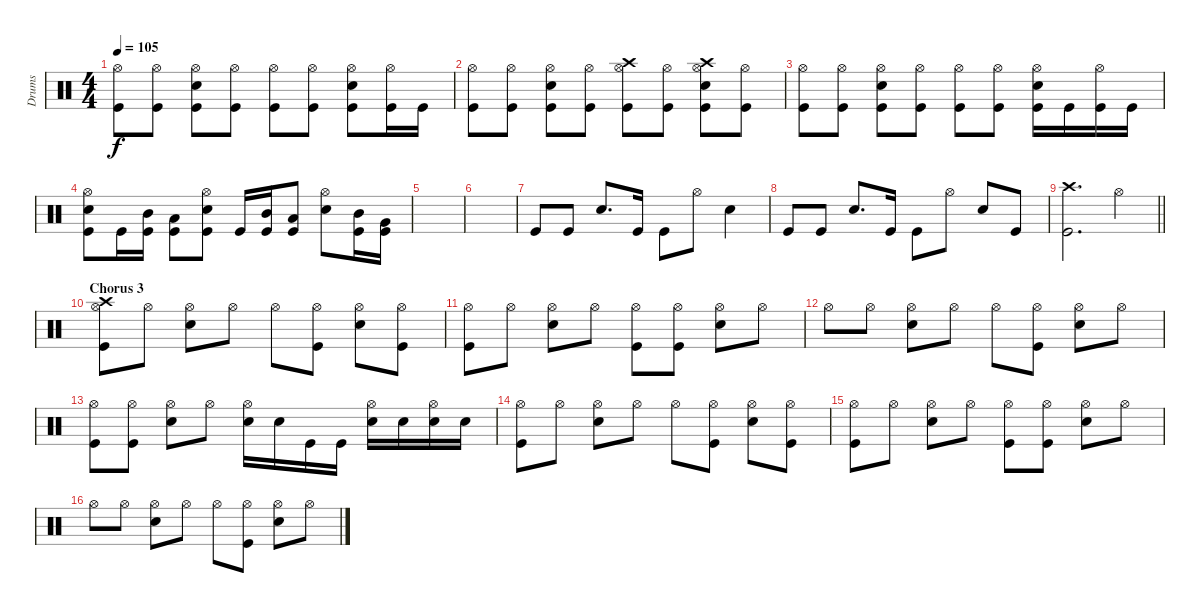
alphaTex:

\track ("Drums" "Drums") {instrument percussion}
\staff {score}
\articulation defaults
\ts (4 4)
\tempo 105
\clef neutral
\ks c
("Hi-Hat (open)" "Kick (hit)").8{dy f} ("Hi-Hat (open)" "Kick (hit)").8 ("Snare (hit) 2" "Hi-Hat (open)" "Kick (hit)").8 ("Hi-Hat (open)" "Kick (hit)").8 ("Hi-Hat (open)" "Kick (hit)").8 ("Hi-Hat (open)" "Kick (hit)").8 ("Snare (hit) 2" "Hi-Hat (open)" "Kick (hit)").8 ("Hi-Hat (open)" "Kick (hit)").16 "Kick (hit)".16 |
("Hi-Hat (open)" "Kick (hit)").8 ("Hi-Hat (open)" "Kick (hit)").8 ("Snare (hit) 2" "Hi-Hat (open)" "Kick (hit)").8 ("Hi-Hat (open)" "Kick (hit)").8 ("Crash high (hit)" "Hi-Hat (open)" "Kick (hit)").8 ("Hi-Hat (open)" "Kick (hit)").8 ("Crash high (hit)" "Snare (hit) 2" "Hi-Hat (open)" "Kick (hit)").8 ("Hi-Hat (open)" "Kick (hit)").8 |
("Hi-Hat (open)" "Kick (hit)").8 ("Hi-Hat (open)" "Kick (hit)").8 ("Snare (hit) 2" "Hi-Hat (open)" "Kick (hit)").8 ("Hi-Hat (open)" "Kick (hit)").8 ("Hi-Hat (open)" "Kick (hit)").8 ("Hi-Hat (open)" "Kick (hit)").8 ("Snare (hit) 2" "Hi-Hat (open)" "Kick (hit)").16 "Kick (hit)".16 ("Kick (hit)" "Hi-Hat (open)").16 "Kick (hit)".16 |
("Hi-Hat (open)" "Snare (hit) 2" "Kick (hit)").8 "Kick (hit)".16 ("Mid Tom (hit)" "Kick (hit)").16 ("Kick (hit)" "Low Tom (hit)").8 ("Hi-Hat (open)" "Snare (hit) 2" "Kick (hit)").8 "Kick (hit)".16 ("Mid Tom (hit)" "Kick (hit)").16 ("Kick (hit)" "Low Tom (hit)").8 ("Snare (hit) 2" "Hi-Hat (open)").8 ("Kick (hit)" "Mid Tom (hit)").16 ("Very Low Tom (hit)" "Kick (hit)").16 |
|
|
"Kick (hit)".8 "Kick (hit)".8 "Snare (hit) 2".8{d} "Kick (hit)".16 "Kick (hit)".8 "Hi-Hat (open)".8 "Snare (hit) 2".4 |
"Kick (hit)".8 "Kick (hit)".8 "Snare (hit) 2".8{d} "Kick (hit)".16 "Kick (hit)".8 "Hi-Hat (open)".8 "Snare (hit) 2".8 "Kick (hit)".8 |
\barLineRight lightlight
("Kick (hit)" "Crash high (hit)").2{d} "Hi-Hat (open)".4 |
\section ("" "Chorus 3")
("Kick (hit)" "Hi-Hat (open)" "Crash high (hit)").8 "Hi-Hat (open)".8 ("Snare (hit) 2" "Hi-Hat (open)").8 "Hi-Hat (open)".8 "Hi-Hat (open)".8 ("Kick (hit)" "Hi-Hat (open)").8 ("Snare (hit) 2" "Hi-Hat (open)").8 ("Kick (hit)" "Hi-Hat (open)").8 |
("Kick (hit)" "Hi-Hat (open)").8 "Hi-Hat (open)".8 ("Snare (hit) 2" "Hi-Hat (open)").8 "Hi-Hat (open)".8 ("Kick (hit)" "Hi-Hat (open)").8 ("Kick (hit)" "Hi-Hat (open)").8 ("Snare (hit) 2" "Hi-Hat (open)").8 "Hi-Hat (open)".8 |
"Hi-Hat (open)".8 "Hi-Hat (open)".8 ("Snare (hit) 2" "Hi-Hat (open)").8 "Hi-Hat (open)".8 "Hi-Hat (open)".8 ("Kick (hit)" "Hi-Hat (open)").8 ("Snare (hit) 2" "Hi-Hat (open)").8 "Hi-Hat (open)".8 |
("Kick (hit)" "Hi-Hat (open)").8 ("Kick (hit)" "Hi-Hat (open)").8 ("Snare (hit) 2" "Hi-Hat (open)").8 "Hi-Hat (open)".8 ("Snare (hit) 2" "Hi-Hat (open)").16 "Snare (hit) 2".16 "Kick (hit)".16 "Kick (hit)".16 ("Snare (hit) 2" "Hi-Hat (open)").16 "Snare (hit) 2".16 ("Snare (hit) 2" "Hi-Hat (open)").16 "Snare (hit) 2".16 |
("Kick (hit)" "Hi-Hat (open)").8 "Hi-Hat (open)".8 ("Snare (hit) 2" "Hi-Hat (open)").8 "Hi-Hat (open)".8 "Hi-Hat (open)".8 ("Kick (hit)" "Hi-Hat (open)").8 ("Snare (hit) 2" "Hi-Hat (open)").8 ("Kick (hit)" "Hi-Hat (open)").8 |
("Kick (hit)" "Hi-Hat (open)").8 "Hi-Hat (open)".8 ("Snare (hit) 2" "Hi-Hat (open)").8 "Hi-Hat (open)".8 ("Kick (hit)" "Hi-Hat (open)").8 ("Kick (hit)" "Hi-Hat (open)").8 ("Snare (hit) 2" "Hi-Hat (open)").8 "Hi-Hat (open)".8 |
"Hi-Hat (open)".8 "Hi-Hat (open)".8 ("Snare (hit) 2" "Hi-Hat (open)").8 "Hi-Hat (open)".8 "Hi-Hat (open)".8 ("Kick (hit)" "Hi-Hat (open)").8 ("Snare (hit) 2" "Hi-Hat (open)").8 "Hi-Hat (open)".8
